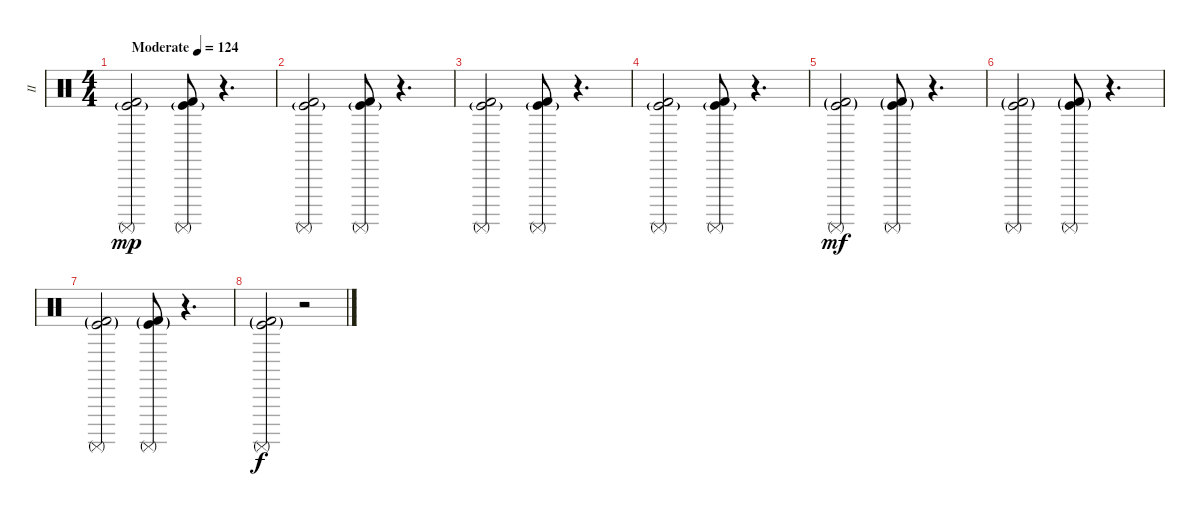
\track ("II" "II") {instrument percussion}
\staff {score}
\articulation defaults
\ts (4 4)
\tempo (124 "Moderate")
\clef neutral
\ks c
("Kick (hit) 2" "Surdo (mute)" "Kick (hit)"{g}).2{dy mp} ("Kick (hit) 2" "Surdo (mute)" "Kick (hit)"{g}).8 r.4{d} |
("Kick (hit) 2" "Surdo (mute)" "Kick (hit)"{g}).2 ("Kick (hit) 2" "Surdo (mute)" "Kick (hit)"{g}).8 r.4{d} |
("Kick (hit) 2" "Surdo (mute)" "Kick (hit)"{g}).2 ("Kick (hit) 2" "Surdo (mute)" "Kick (hit)"{g}).8 r.4{d} |
("Kick (hit) 2" "Surdo (mute)" "Kick (hit)"{g}).2 ("Kick (hit) 2" "Surdo (mute)" "Kick (hit)"{g}).8 r.4{d} |
("Kick (hit) 2"{g} "Surdo (mute)" "Kick (hit)"{g}).2{dy mf} ("Kick (hit) 2"{g} "Surdo (mute)" "Kick (hit)"{g}).8 r.4{d} |
("Kick (hit) 2"{g} "Surdo (mute)" "Kick (hit)"{g}).2 ("Kick (hit) 2"{g} "Surdo (mute)" "Kick (hit)"{g}).8 r.4{d} |
("Kick (hit) 2"{g} "Surdo (mute)" "Kick (hit)"{g}).2 ("Kick (hit) 2"{g} "Surdo (mute)" "Kick (hit)"{g}).8 r.4{d} |
("Kick (hit) 2"{g} "Surdo (mute)" "Kick (hit)"{g}).2{dy f} r.2
